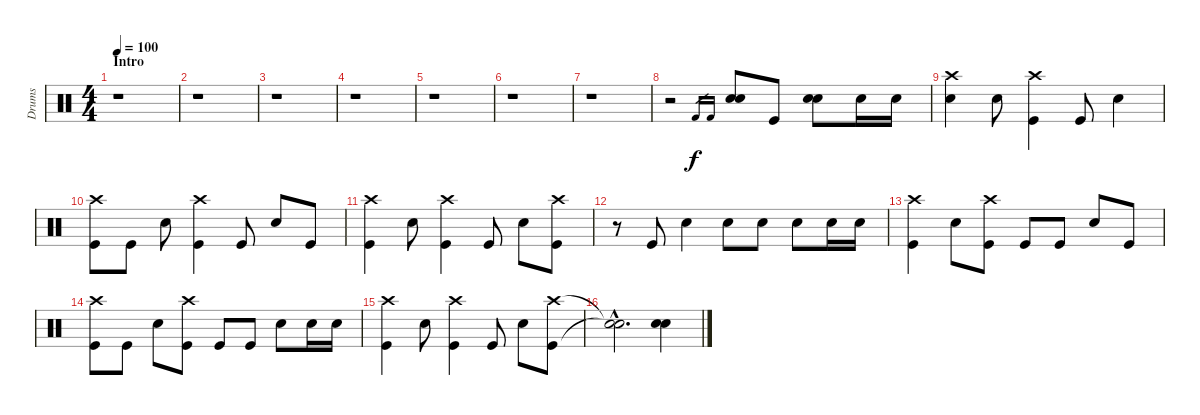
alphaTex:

\track ("Drums" "Drums") {instrument percussion}
\staff {score}
\articulation defaults
\ts (4 4)
\section ("" "Intro")
\tempo 100
\clef neutral
\ks c
r.1{dy f} |
r.1 |
r.1 |
r.1 |
r.1 |
r.1 |
r.1 |
r.2 "Kick (hit) 2".16{gr} "Kick (hit) 2".16{gr} ("Snare (hit) 2" "Snare (hit) 2").8{bd 120} "Kick (hit)".8 ("Snare (hit) 2" "Snare (hit) 2").8{bd 120} "Snare (hit) 2".16 "Snare (hit) 2".16 |
("Crash high (hit)" "Snare (hit) 2").4 "Snare (hit) 2".8 ("Crash high (hit)" "Kick (hit)").4 "Kick (hit)".8 "Snare (hit) 2".4 |
("Crash high (hit)" "Kick (hit)").8 "Kick (hit)".8 "Snare (hit) 2".8 ("Crash high (hit)" "Kick (hit)").4 "Kick (hit)".8 "Snare (hit) 2".8 "Kick (hit)".8 |
("Crash high (hit)" "Kick (hit)").4 "Snare (hit) 2".8 ("Crash high (hit)" "Kick (hit)").4 "Kick (hit)".8 "Snare (hit) 2".8 ("Crash high (hit)" "Kick (hit)").8 |
r.8 "Kick (hit)".8 "Snare (hit) 2".4 "Snare (hit) 2".8 "Snare (hit) 2".8 "Snare (hit) 2".8 "Snare (hit) 2".16 "Snare (hit) 2".16 |
("Crash high (hit)" "Kick (hit)").4 "Snare (hit) 2".8 ("Crash high (hit)" "Kick (hit)").8 "Kick (hit)".8 "Kick (hit)".8 "Snare (hit) 2".8 "Kick (hit)".8 |
("Crash high (hit)" "Kick (hit)").8 "Kick (hit)".8 "Snare (hit) 2".8 ("Crash high (hit)" "Kick (hit)").8 "Kick (hit)".8 "Kick (hit)".8 "Snare (hit) 2".8 "Snare (hit) 2".16 "Snare (hit) 2".16 |
("Crash high (hit)" "Kick (hit)").4 "Snare (hit) 2".8 ("Crash high (hit)" "Kick (hit)").4 "Kick (hit)".8 "Snare (hit) 2".8 ("Crash high (hit)" "Kick (hit)").8 |
("Snare (hit)"{hac t} "Snare (hit)"{hac t}).2{d} ("Snare (hit) 2" "Snare (hit) 2").4{bd 120}
